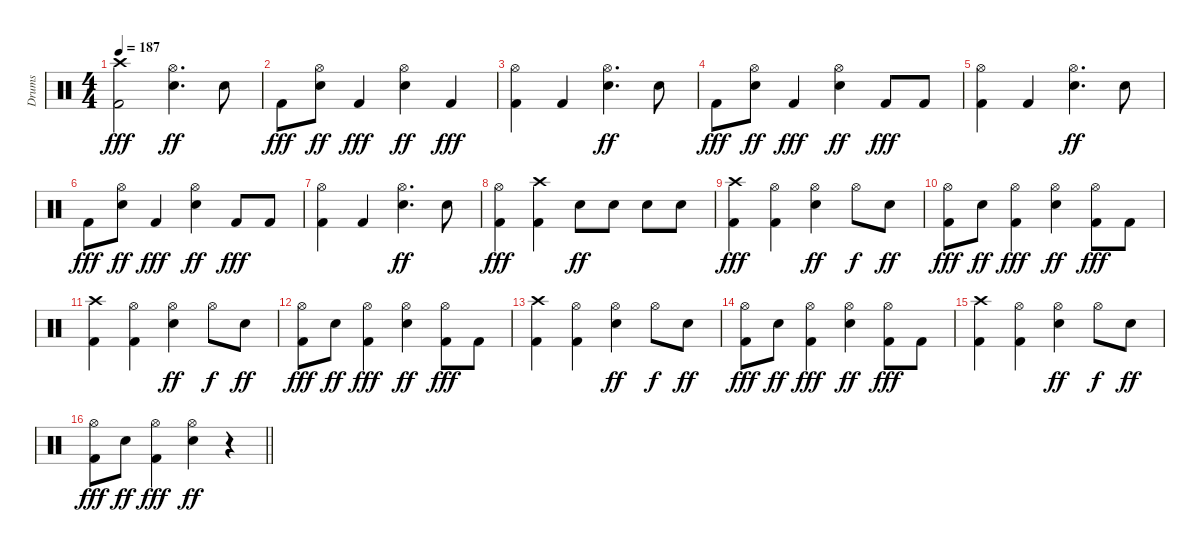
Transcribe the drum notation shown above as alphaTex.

\track ("Drums" "Drums") {instrument percussion}
\staff {score}
\articulation defaults
\ts (4 4)
\tempo 187
\clef neutral
\ks c
("Crash high (hit)" "Kick (hit) 2").2{dy fff} ("Hi-Hat (open)" "Snare (hit) 2").4{d dy ff} "Snare (hit) 2".8 |
"Kick (hit) 2".8{dy fff} ("Hi-Hat (open)" "Snare (hit) 2").8{dy ff} "Kick (hit) 2".4{dy fff} ("Hi-Hat (open)" "Snare (hit) 2").4{dy ff} "Kick (hit) 2".4{dy fff} |
("Hi-Hat (open)" "Kick (hit) 2").4 "Kick (hit) 2".4 ("Hi-Hat (open)" "Snare (hit) 2").4{d dy ff} "Snare (hit) 2".8 |
"Kick (hit) 2".8{dy fff} ("Hi-Hat (open)" "Snare (hit) 2").8{dy ff} "Kick (hit) 2".4{dy fff} ("Hi-Hat (open)" "Snare (hit) 2").4{dy ff} "Kick (hit) 2".8{dy fff} "Kick (hit) 2".8 |
("Hi-Hat (open)" "Kick (hit) 2").4 "Kick (hit) 2".4 ("Hi-Hat (open)" "Snare (hit) 2").4{d dy ff} "Snare (hit) 2".8 |
"Kick (hit) 2".8{dy fff} ("Hi-Hat (open)" "Snare (hit) 2").8{dy ff} "Kick (hit) 2".4{dy fff} ("Hi-Hat (open)" "Snare (hit) 2").4{dy ff} "Kick (hit) 2".8{dy fff} "Kick (hit) 2".8 |
("Hi-Hat (open)" "Kick (hit) 2").4 "Kick (hit) 2".4 ("Hi-Hat (open)" "Snare (hit) 2").4{d dy ff} "Snare (hit) 2".8 |
("Hi-Hat (open)" "Kick (hit) 2").4{dy fff} ("Crash high (hit)" "Kick (hit) 2").4 "Snare (hit) 2".8{dy ff} "Snare (hit) 2".8 "Snare (hit) 2".8 "Snare (hit) 2".8 |
("Crash high (hit)" "Kick (hit) 2").4{dy fff} ("Hi-Hat (open)" "Kick (hit) 2").4 ("Hi-Hat (open)" "Snare (hit) 2").4{dy ff} "Hi-Hat (open)".8{dy f} "Snare (hit) 2".8{dy ff} |
("Hi-Hat (open)" "Kick (hit) 2").8{dy fff} "Snare (hit) 2".8{dy ff} ("Hi-Hat (open)" "Kick (hit) 2").4{dy fff} ("Hi-Hat (open)" "Snare (hit) 2").4{dy ff} ("Hi-Hat (open)" "Kick (hit) 2").8{dy fff} "Kick (hit) 2".8 |
("Crash high (hit)" "Kick (hit) 2").4 ("Hi-Hat (open)" "Kick (hit) 2").4 ("Hi-Hat (open)" "Snare (hit) 2").4{dy ff} "Hi-Hat (open)".8{dy f} "Snare (hit) 2".8{dy ff} |
("Hi-Hat (open)" "Kick (hit) 2").8{dy fff} "Snare (hit) 2".8{dy ff} ("Hi-Hat (open)" "Kick (hit) 2").4{dy fff} ("Hi-Hat (open)" "Snare (hit) 2").4{dy ff} ("Hi-Hat (open)" "Kick (hit) 2").8{dy fff} "Kick (hit) 2".8 |
("Crash high (hit)" "Kick (hit) 2").4 ("Hi-Hat (open)" "Kick (hit) 2").4 ("Hi-Hat (open)" "Snare (hit) 2").4{dy ff} "Hi-Hat (open)".8{dy f} "Snare (hit) 2".8{dy ff} |
("Hi-Hat (open)" "Kick (hit) 2").8{dy fff} "Snare (hit) 2".8{dy ff} ("Hi-Hat (open)" "Kick (hit) 2").4{dy fff} ("Hi-Hat (open)" "Snare (hit) 2").4{dy ff} ("Hi-Hat (open)" "Kick (hit) 2").8{dy fff} "Kick (hit) 2".8 |
("Crash high (hit)" "Kick (hit) 2").4 ("Hi-Hat (open)" "Kick (hit) 2").4 ("Hi-Hat (open)" "Snare (hit) 2").4{dy ff} "Hi-Hat (open)".8{dy f} "Snare (hit) 2".8{dy ff} |
\barLineRight lightlight
("Hi-Hat (open)" "Kick (hit) 2").8{dy fff} "Snare (hit) 2".8{dy ff} ("Hi-Hat (open)" "Kick (hit) 2").4{dy fff} ("Hi-Hat (open)" "Snare (hit) 2").4{dy ff} r.4{volume 0}
